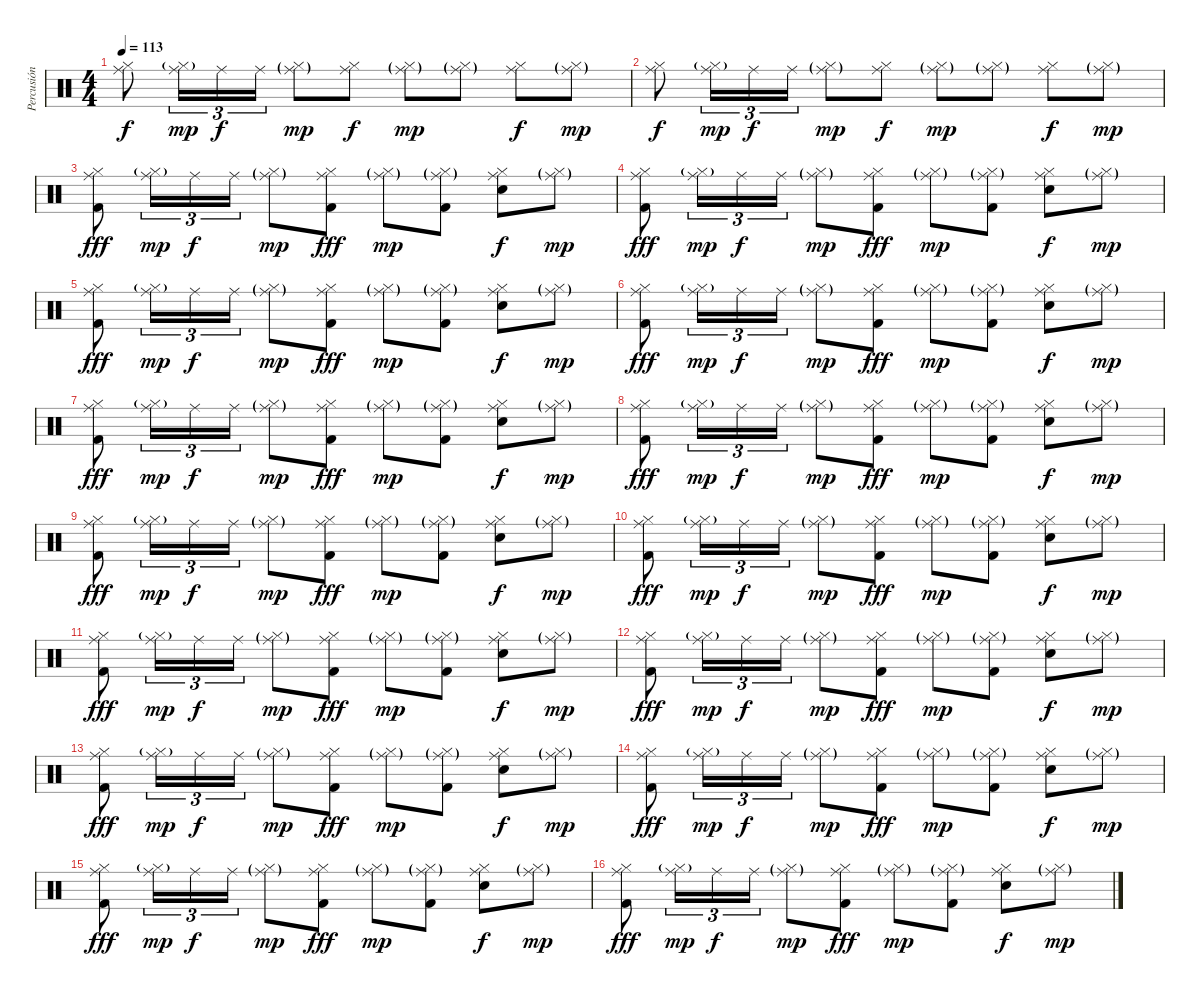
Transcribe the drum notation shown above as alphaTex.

\track ("Percusión" "Percusión") {instrument percussion}
\staff {score}
\articulation defaults
\ts (4 4)
\tempo 113
\clef neutral
\ks c
("Hi-Hat (closed)" "Ride (middle)").8{dy f} ("Hi-Hat (closed)"{g} "Ride (middle)").16{tu (3 2) dy mp} "Ride (middle)".16{tu (3 2) dy f} "Ride (middle)".16{tu (3 2)} ("Hi-Hat (closed)"{g} "Ride (middle)"{g}).8{dy mp} ("Hi-Hat (closed)" "Ride (middle)").8{dy f} ("Hi-Hat (closed)"{g} "Ride (middle)"{g}).8{dy mp} ("Hi-Hat (closed)"{g} "Ride (middle)"{g}).8 ("Hi-Hat (closed)" "Ride (middle)").8{dy f} ("Hi-Hat (closed)"{g} "Ride (middle)"{g}).8{dy mp} |
("Hi-Hat (closed)" "Ride (middle)").8{dy f} ("Hi-Hat (closed)"{g} "Ride (middle)").16{tu (3 2) dy mp} "Ride (middle)".16{tu (3 2) dy f} "Ride (middle)".16{tu (3 2)} ("Hi-Hat (closed)"{g} "Ride (middle)"{g}).8{dy mp} ("Hi-Hat (closed)" "Ride (middle)").8{dy f} ("Hi-Hat (closed)"{g} "Ride (middle)"{g}).8{dy mp} ("Hi-Hat (closed)"{g} "Ride (middle)"{g}).8 ("Hi-Hat (closed)" "Ride (middle)").8{dy f} ("Hi-Hat (closed)"{g} "Ride (middle)"{g}).8{dy mp} |
("Kick (hit) 2" "Hi-Hat (closed)" "Ride (middle)").8{dy fff} ("Hi-Hat (closed)"{g} "Ride (middle)").16{tu (3 2) dy mp} "Ride (middle)".16{tu (3 2) dy f} "Ride (middle)".16{tu (3 2)} ("Hi-Hat (closed)"{g} "Ride (middle)"{g}).8{dy mp} ("Kick (hit) 2" "Hi-Hat (closed)" "Ride (middle)").8{dy fff} ("Hi-Hat (closed)"{g} "Ride (middle)"{g}).8{dy mp} ("Kick (hit) 2" "Hi-Hat (closed)"{g} "Ride (middle)"{g}).8 ("Snare (hit) 2" "Hi-Hat (closed)" "Ride (middle)").8{dy f} ("Hi-Hat (closed)"{g} "Ride (middle)"{g}).8{dy mp} |
("Kick (hit) 2" "Hi-Hat (closed)" "Ride (middle)").8{dy fff} ("Hi-Hat (closed)"{g} "Ride (middle)").16{tu (3 2) dy mp} "Ride (middle)".16{tu (3 2) dy f} "Ride (middle)".16{tu (3 2)} ("Hi-Hat (closed)"{g} "Ride (middle)"{g}).8{dy mp} ("Kick (hit) 2" "Hi-Hat (closed)" "Ride (middle)").8{dy fff} ("Hi-Hat (closed)"{g} "Ride (middle)"{g}).8{dy mp} ("Kick (hit) 2" "Hi-Hat (closed)"{g} "Ride (middle)"{g}).8 ("Snare (hit) 2" "Hi-Hat (closed)" "Ride (middle)").8{dy f} ("Hi-Hat (closed)"{g} "Ride (middle)"{g}).8{dy mp} |
("Kick (hit) 2" "Hi-Hat (closed)" "Ride (middle)").8{dy fff} ("Hi-Hat (closed)"{g} "Ride (middle)").16{tu (3 2) dy mp} "Ride (middle)".16{tu (3 2) dy f} "Ride (middle)".16{tu (3 2)} ("Hi-Hat (closed)"{g} "Ride (middle)"{g}).8{dy mp} ("Kick (hit) 2" "Hi-Hat (closed)" "Ride (middle)").8{dy fff} ("Hi-Hat (closed)"{g} "Ride (middle)"{g}).8{dy mp} ("Kick (hit) 2" "Hi-Hat (closed)"{g} "Ride (middle)"{g}).8 ("Snare (hit) 2" "Hi-Hat (closed)" "Ride (middle)").8{dy f} ("Hi-Hat (closed)"{g} "Ride (middle)"{g}).8{dy mp} |
("Kick (hit) 2" "Hi-Hat (closed)" "Ride (middle)").8{dy fff} ("Hi-Hat (closed)"{g} "Ride (middle)").16{tu (3 2) dy mp} "Ride (middle)".16{tu (3 2) dy f} "Ride (middle)".16{tu (3 2)} ("Hi-Hat (closed)"{g} "Ride (middle)"{g}).8{dy mp} ("Kick (hit) 2" "Hi-Hat (closed)" "Ride (middle)").8{dy fff} ("Hi-Hat (closed)"{g} "Ride (middle)"{g}).8{dy mp} ("Kick (hit) 2" "Hi-Hat (closed)"{g} "Ride (middle)"{g}).8 ("Snare (hit) 2" "Hi-Hat (closed)" "Ride (middle)").8{dy f} ("Hi-Hat (closed)"{g} "Ride (middle)"{g}).8{dy mp} |
("Kick (hit) 2" "Hi-Hat (closed)" "Ride (middle)").8{dy fff} ("Hi-Hat (closed)"{g} "Ride (middle)").16{tu (3 2) dy mp} "Ride (middle)".16{tu (3 2) dy f} "Ride (middle)".16{tu (3 2)} ("Hi-Hat (closed)"{g} "Ride (middle)"{g}).8{dy mp} ("Kick (hit) 2" "Hi-Hat (closed)" "Ride (middle)").8{dy fff} ("Hi-Hat (closed)"{g} "Ride (middle)"{g}).8{dy mp} ("Kick (hit) 2" "Hi-Hat (closed)"{g} "Ride (middle)"{g}).8 ("Snare (hit) 2" "Hi-Hat (closed)" "Ride (middle)").8{dy f} ("Hi-Hat (closed)"{g} "Ride (middle)"{g}).8{dy mp} |
("Kick (hit) 2" "Hi-Hat (closed)" "Ride (middle)").8{dy fff} ("Hi-Hat (closed)"{g} "Ride (middle)").16{tu (3 2) dy mp} "Ride (middle)".16{tu (3 2) dy f} "Ride (middle)".16{tu (3 2)} ("Hi-Hat (closed)"{g} "Ride (middle)"{g}).8{dy mp} ("Kick (hit) 2" "Hi-Hat (closed)" "Ride (middle)").8{dy fff} ("Hi-Hat (closed)"{g} "Ride (middle)"{g}).8{dy mp} ("Kick (hit) 2" "Hi-Hat (closed)"{g} "Ride (middle)"{g}).8 ("Snare (hit) 2" "Hi-Hat (closed)" "Ride (middle)").8{dy f} ("Hi-Hat (closed)"{g} "Ride (middle)"{g}).8{dy mp} |
("Kick (hit) 2" "Hi-Hat (closed)" "Ride (middle)").8{dy fff} ("Hi-Hat (closed)"{g} "Ride (middle)").16{tu (3 2) dy mp} "Ride (middle)".16{tu (3 2) dy f} "Ride (middle)".16{tu (3 2)} ("Hi-Hat (closed)"{g} "Ride (middle)"{g}).8{dy mp} ("Kick (hit) 2" "Hi-Hat (closed)" "Ride (middle)").8{dy fff} ("Hi-Hat (closed)"{g} "Ride (middle)"{g}).8{dy mp} ("Kick (hit) 2" "Hi-Hat (closed)"{g} "Ride (middle)"{g}).8 ("Snare (hit) 2" "Hi-Hat (closed)" "Ride (middle)").8{dy f} ("Hi-Hat (closed)"{g} "Ride (middle)"{g}).8{dy mp} |
("Kick (hit) 2" "Hi-Hat (closed)" "Ride (middle)").8{dy fff} ("Hi-Hat (closed)"{g} "Ride (middle)").16{tu (3 2) dy mp} "Ride (middle)".16{tu (3 2) dy f} "Ride (middle)".16{tu (3 2)} ("Hi-Hat (closed)"{g} "Ride (middle)"{g}).8{dy mp} ("Kick (hit) 2" "Hi-Hat (closed)" "Ride (middle)").8{dy fff} ("Hi-Hat (closed)"{g} "Ride (middle)"{g}).8{dy mp} ("Kick (hit) 2" "Hi-Hat (closed)"{g} "Ride (middle)"{g}).8 ("Snare (hit) 2" "Hi-Hat (closed)" "Ride (middle)").8{dy f} ("Hi-Hat (closed)"{g} "Ride (middle)"{g}).8{dy mp} |
("Kick (hit) 2" "Hi-Hat (closed)" "Ride (middle)").8{dy fff} ("Hi-Hat (closed)"{g} "Ride (middle)").16{tu (3 2) dy mp} "Ride (middle)".16{tu (3 2) dy f} "Ride (middle)".16{tu (3 2)} ("Hi-Hat (closed)"{g} "Ride (middle)"{g}).8{dy mp} ("Kick (hit) 2" "Hi-Hat (closed)" "Ride (middle)").8{dy fff} ("Hi-Hat (closed)"{g} "Ride (middle)"{g}).8{dy mp} ("Kick (hit) 2" "Hi-Hat (closed)"{g} "Ride (middle)"{g}).8 ("Snare (hit) 2" "Hi-Hat (closed)" "Ride (middle)").8{dy f} ("Hi-Hat (closed)"{g} "Ride (middle)"{g}).8{dy mp} |
("Kick (hit) 2" "Hi-Hat (closed)" "Ride (middle)").8{dy fff} ("Hi-Hat (closed)"{g} "Ride (middle)").16{tu (3 2) dy mp} "Ride (middle)".16{tu (3 2) dy f} "Ride (middle)".16{tu (3 2)} ("Hi-Hat (closed)"{g} "Ride (middle)"{g}).8{dy mp} ("Kick (hit) 2" "Hi-Hat (closed)" "Ride (middle)").8{dy fff} ("Hi-Hat (closed)"{g} "Ride (middle)"{g}).8{dy mp} ("Kick (hit) 2" "Hi-Hat (closed)"{g} "Ride (middle)"{g}).8 ("Snare (hit) 2" "Hi-Hat (closed)" "Ride (middle)").8{dy f} ("Hi-Hat (closed)"{g} "Ride (middle)"{g}).8{dy mp} |
("Kick (hit) 2" "Hi-Hat (closed)" "Ride (middle)").8{dy fff} ("Hi-Hat (closed)"{g} "Ride (middle)").16{tu (3 2) dy mp} "Ride (middle)".16{tu (3 2) dy f} "Ride (middle)".16{tu (3 2)} ("Hi-Hat (closed)"{g} "Ride (middle)"{g}).8{dy mp} ("Kick (hit) 2" "Hi-Hat (closed)" "Ride (middle)").8{dy fff} ("Hi-Hat (closed)"{g} "Ride (middle)"{g}).8{dy mp} ("Kick (hit) 2" "Hi-Hat (closed)"{g} "Ride (middle)"{g}).8 ("Snare (hit) 2" "Hi-Hat (closed)" "Ride (middle)").8{dy f} ("Hi-Hat (closed)"{g} "Ride (middle)"{g}).8{dy mp} |
("Kick (hit) 2" "Hi-Hat (closed)" "Ride (middle)").8{dy fff} ("Hi-Hat (closed)"{g} "Ride (middle)").16{tu (3 2) dy mp} "Ride (middle)".16{tu (3 2) dy f} "Ride (middle)".16{tu (3 2)} ("Hi-Hat (closed)"{g} "Ride (middle)"{g}).8{dy mp} ("Kick (hit) 2" "Hi-Hat (closed)" "Ride (middle)").8{dy fff} ("Hi-Hat (closed)"{g} "Ride (middle)"{g}).8{dy mp} ("Kick (hit) 2" "Hi-Hat (closed)"{g} "Ride (middle)"{g}).8 ("Snare (hit) 2" "Hi-Hat (closed)" "Ride (middle)").8{dy f} ("Hi-Hat (closed)"{g} "Ride (middle)"{g}).8{dy mp} |
("Kick (hit) 2" "Hi-Hat (closed)" "Ride (middle)").8{dy fff} ("Hi-Hat (closed)"{g} "Ride (middle)").16{tu (3 2) dy mp} "Ride (middle)".16{tu (3 2) dy f} "Ride (middle)".16{tu (3 2)} ("Hi-Hat (closed)"{g} "Ride (middle)"{g}).8{dy mp} ("Kick (hit) 2" "Hi-Hat (closed)" "Ride (middle)").8{dy fff} ("Hi-Hat (closed)"{g} "Ride (middle)"{g}).8{dy mp} ("Kick (hit) 2" "Hi-Hat (closed)"{g} "Ride (middle)"{g}).8 ("Snare (hit) 2" "Hi-Hat (closed)" "Ride (middle)").8{dy f} ("Hi-Hat (closed)"{g} "Ride (middle)"{g}).8{dy mp} |
("Kick (hit) 2" "Hi-Hat (closed)" "Ride (middle)").8{dy fff} ("Hi-Hat (closed)"{g} "Ride (middle)").16{tu (3 2) dy mp} "Ride (middle)".16{tu (3 2) dy f} "Ride (middle)".16{tu (3 2)} ("Hi-Hat (closed)"{g} "Ride (middle)"{g}).8{dy mp} ("Kick (hit) 2" "Hi-Hat (closed)" "Ride (middle)").8{dy fff} ("Hi-Hat (closed)"{g} "Ride (middle)"{g}).8{dy mp} ("Kick (hit) 2" "Hi-Hat (closed)"{g} "Ride (middle)"{g}).8 ("Snare (hit) 2" "Hi-Hat (closed)" "Ride (middle)").8{dy f} ("Hi-Hat (closed)"{g} "Ride (middle)"{g}).8{dy mp}
